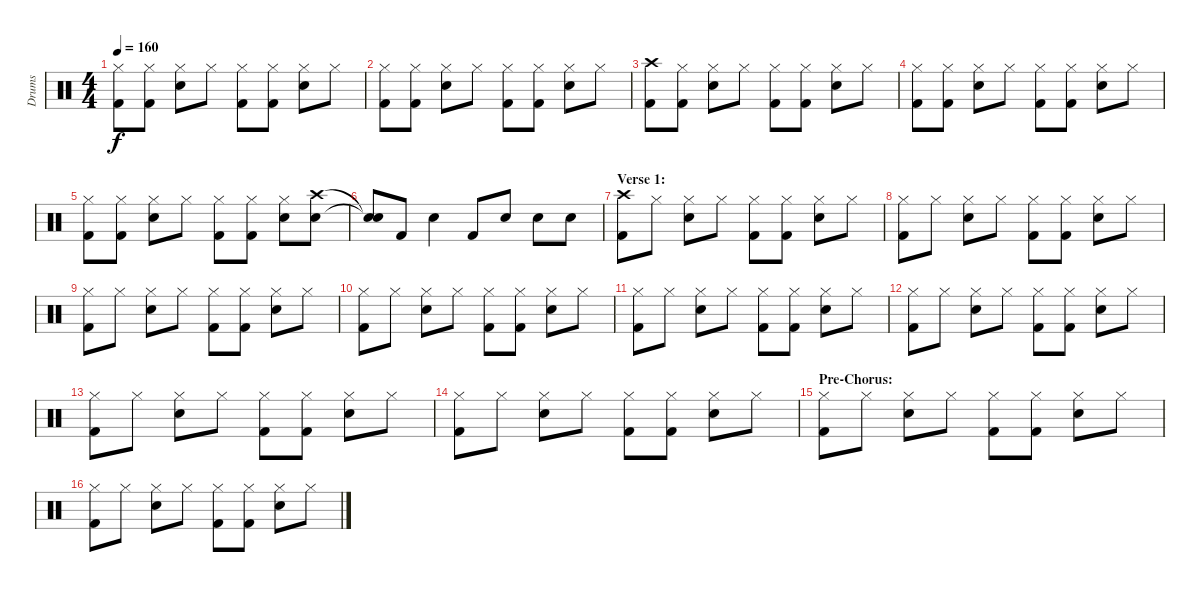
\track ("Drums" "Drums") {instrument percussion}
\staff {score}
\articulation defaults
\ts (4 4)
\tempo 160
\clef neutral
\ks c
("Hi-Hat (closed)" "Kick (hit) 2").8{dy f} ("Hi-Hat (closed)" "Kick (hit) 2").8 ("Hi-Hat (closed)" "Electric Snare (hit)").8 "Hi-Hat (closed)".8 ("Hi-Hat (closed)" "Kick (hit) 2").8 ("Hi-Hat (closed)" "Kick (hit) 2").8 ("Hi-Hat (closed)" "Electric Snare (hit)").8 "Hi-Hat (closed)".8 |
("Hi-Hat (closed)" "Kick (hit) 2").8 ("Hi-Hat (closed)" "Kick (hit) 2").8 ("Hi-Hat (closed)" "Electric Snare (hit)").8 "Hi-Hat (closed)".8 ("Hi-Hat (closed)" "Kick (hit) 2").8 ("Hi-Hat (closed)" "Kick (hit) 2").8 ("Hi-Hat (closed)" "Electric Snare (hit)").8 "Hi-Hat (closed)".8 |
("Crash high (hit)" "Kick (hit) 2").8 ("Hi-Hat (closed)" "Kick (hit) 2").8 ("Hi-Hat (closed)" "Electric Snare (hit)").8 "Hi-Hat (closed)".8 ("Hi-Hat (closed)" "Kick (hit) 2").8 ("Hi-Hat (closed)" "Kick (hit) 2").8 ("Hi-Hat (closed)" "Electric Snare (hit)").8 "Hi-Hat (closed)".8 |
("Hi-Hat (closed)" "Kick (hit) 2").8 ("Hi-Hat (closed)" "Kick (hit) 2").8 ("Hi-Hat (closed)" "Electric Snare (hit)").8 "Hi-Hat (closed)".8 ("Hi-Hat (closed)" "Kick (hit) 2").8 ("Hi-Hat (closed)" "Kick (hit) 2").8 ("Hi-Hat (closed)" "Electric Snare (hit)").8 "Hi-Hat (closed)".8 |
("Hi-Hat (closed)" "Kick (hit) 2").8 ("Hi-Hat (closed)" "Kick (hit) 2").8 ("Hi-Hat (closed)" "Electric Snare (hit)").8 "Hi-Hat (closed)".8 ("Hi-Hat (closed)" "Kick (hit) 2").8 ("Hi-Hat (closed)" "Kick (hit) 2").8 ("Hi-Hat (closed)" "Electric Snare (hit)").8 ("Crash high (hit)" "Electric Snare (hit)").8 |
("Snare (hit)"{t} "Snare (hit)"{t}).8 "Kick (hit) 2".8 "Electric Snare (hit)".4 "Kick (hit) 2".8 "Electric Snare (hit)".8 "Electric Snare (hit)".8 "Electric Snare (hit)".8 |
\section ("" "Verse 1:")
("Crash high (hit)" "Kick (hit) 2").8 "Hi-Hat (closed)".8 ("Hi-Hat (closed)" "Electric Snare (hit)").8 "Hi-Hat (closed)".8 ("Hi-Hat (closed)" "Kick (hit) 2").8 ("Hi-Hat (closed)" "Kick (hit) 2").8 ("Hi-Hat (closed)" "Electric Snare (hit)").8 "Hi-Hat (closed)".8 |
("Hi-Hat (closed)" "Kick (hit) 2").8 "Hi-Hat (closed)".8 ("Hi-Hat (closed)" "Electric Snare (hit)").8 "Hi-Hat (closed)".8 ("Hi-Hat (closed)" "Kick (hit) 2").8 ("Hi-Hat (closed)" "Kick (hit) 2").8 ("Hi-Hat (closed)" "Electric Snare (hit)").8 "Hi-Hat (closed)".8 |
("Hi-Hat (closed)" "Kick (hit) 2").8 "Hi-Hat (closed)".8 ("Hi-Hat (closed)" "Electric Snare (hit)").8 "Hi-Hat (closed)".8 ("Hi-Hat (closed)" "Kick (hit) 2").8 ("Hi-Hat (closed)" "Kick (hit) 2").8 ("Hi-Hat (closed)" "Electric Snare (hit)").8 "Hi-Hat (closed)".8 |
("Hi-Hat (closed)" "Kick (hit) 2").8 "Hi-Hat (closed)".8 ("Hi-Hat (closed)" "Electric Snare (hit)").8 "Hi-Hat (closed)".8 ("Hi-Hat (closed)" "Kick (hit) 2").8 ("Hi-Hat (closed)" "Kick (hit) 2").8 ("Hi-Hat (closed)" "Electric Snare (hit)").8 "Hi-Hat (closed)".8 |
("Hi-Hat (closed)" "Kick (hit) 2").8 "Hi-Hat (closed)".8 ("Hi-Hat (closed)" "Electric Snare (hit)").8 "Hi-Hat (closed)".8 ("Hi-Hat (closed)" "Kick (hit) 2").8 ("Hi-Hat (closed)" "Kick (hit) 2").8 ("Hi-Hat (closed)" "Electric Snare (hit)").8 "Hi-Hat (closed)".8 |
("Hi-Hat (closed)" "Kick (hit) 2").8 "Hi-Hat (closed)".8 ("Hi-Hat (closed)" "Electric Snare (hit)").8 "Hi-Hat (closed)".8 ("Hi-Hat (closed)" "Kick (hit) 2").8 ("Hi-Hat (closed)" "Kick (hit) 2").8 ("Hi-Hat (closed)" "Electric Snare (hit)").8 "Hi-Hat (closed)".8 |
("Hi-Hat (closed)" "Kick (hit) 2").8 "Hi-Hat (closed)".8 ("Hi-Hat (closed)" "Electric Snare (hit)").8 "Hi-Hat (closed)".8 ("Hi-Hat (closed)" "Kick (hit) 2").8 ("Hi-Hat (closed)" "Kick (hit) 2").8 ("Hi-Hat (closed)" "Electric Snare (hit)").8 "Hi-Hat (closed)".8 |
("Hi-Hat (closed)" "Kick (hit) 2").8 "Hi-Hat (closed)".8 ("Hi-Hat (closed)" "Electric Snare (hit)").8 "Hi-Hat (closed)".8 ("Hi-Hat (closed)" "Kick (hit) 2").8 ("Hi-Hat (closed)" "Kick (hit) 2").8 ("Hi-Hat (closed)" "Electric Snare (hit)").8 "Hi-Hat (closed)".8 |
\section ("" "Pre-Chorus:")
("Hi-Hat (closed)" "Kick (hit) 2").8 "Hi-Hat (closed)".8 ("Hi-Hat (closed)" "Electric Snare (hit)").8 "Hi-Hat (closed)".8 ("Hi-Hat (closed)" "Kick (hit) 2").8 ("Hi-Hat (closed)" "Kick (hit) 2").8 ("Hi-Hat (closed)" "Electric Snare (hit)").8 "Hi-Hat (closed)".8 |
("Hi-Hat (closed)" "Kick (hit) 2").8 "Hi-Hat (closed)".8 ("Hi-Hat (closed)" "Electric Snare (hit)").8 "Hi-Hat (closed)".8 ("Hi-Hat (closed)" "Kick (hit) 2").8 ("Hi-Hat (closed)" "Kick (hit) 2").8 ("Hi-Hat (closed)" "Electric Snare (hit)").8 "Hi-Hat (closed)".8
